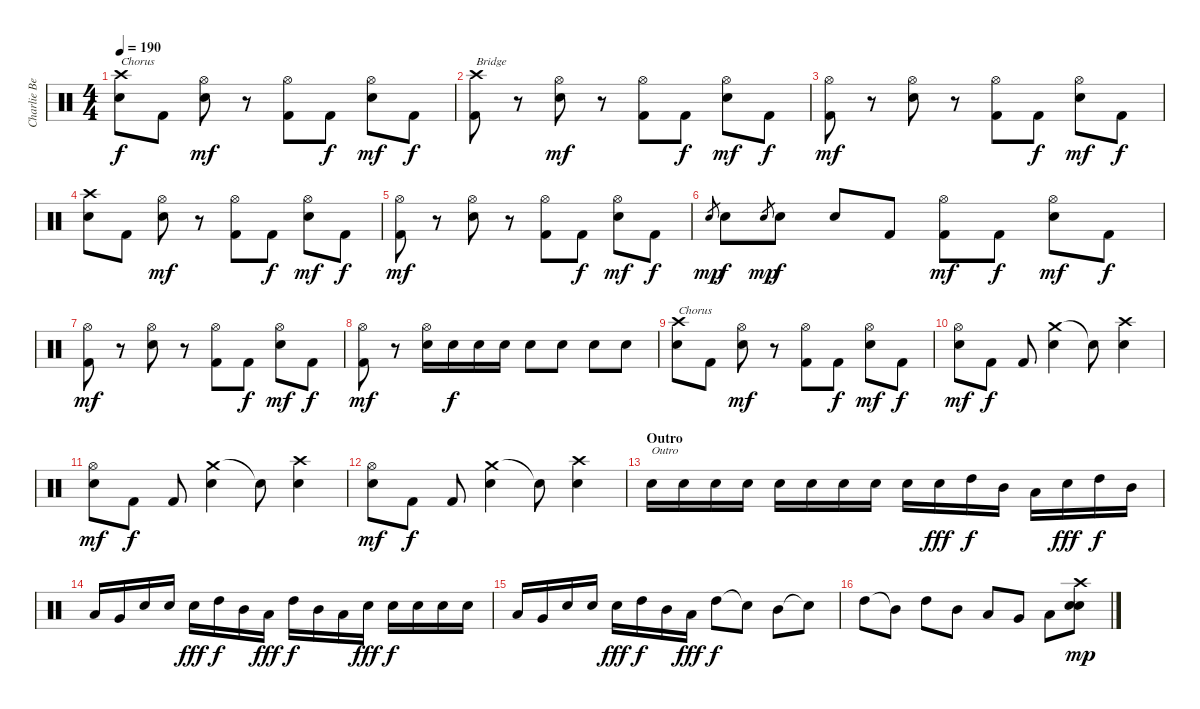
\track ("Charlie Benante" "Charlie Be") {instrument percussion}
\staff {score}
\articulation defaults
\ts (4 4)
\tempo 190
\clef neutral
\ks c
("Crash high (hit)" "Electric Snare (hit)").8{txt "Chorus" dy f} "Kick (hit) 2".8 ("Hi-Hat (open)" "Electric Snare (hit)").8{dy mf} r.8 ("Hi-Hat (open)" "Kick (hit) 2").8 "Kick (hit) 2".8{dy f} ("Hi-Hat (open)" "Electric Snare (hit)").8{dy mf} "Kick (hit) 2".8{dy f} |
("Crash high (hit)" "Kick (hit) 2").8{txt "Bridge"} r.8 ("Hi-Hat (open)" "Electric Snare (hit)").8{dy mf} r.8 ("Hi-Hat (open)" "Kick (hit) 2").8 "Kick (hit) 2".8{dy f} ("Hi-Hat (open)" "Electric Snare (hit)").8{dy mf} "Kick (hit) 2".8{dy f} |
("Hi-Hat (open)" "Kick (hit) 2").8{dy mf} r.8 ("Hi-Hat (open)" "Electric Snare (hit)").8 r.8 ("Hi-Hat (open)" "Kick (hit) 2").8 "Kick (hit) 2".8{dy f} ("Hi-Hat (open)" "Electric Snare (hit)").8{dy mf} "Kick (hit) 2".8{dy f} |
("Crash high (hit)" "Electric Snare (hit)").8 "Kick (hit) 2".8 ("Hi-Hat (open)" "Electric Snare (hit)").8{dy mf} r.8 ("Hi-Hat (open)" "Kick (hit) 2").8 "Kick (hit) 2".8{dy f} ("Hi-Hat (open)" "Electric Snare (hit)").8{dy mf} "Kick (hit) 2".8{dy f} |
("Hi-Hat (open)" "Kick (hit) 2").8{dy mf} r.8 ("Hi-Hat (open)" "Electric Snare (hit)").8 r.8 ("Hi-Hat (open)" "Kick (hit) 2").8 "Kick (hit) 2".8{dy f} ("Hi-Hat (open)" "Electric Snare (hit)").8{dy mf} "Kick (hit) 2".8{dy f} |
"Snare (hit) 2".8{gr dy mp} "Electric Snare (hit)".8{dy f} "Snare (hit) 2".8{gr dy mp} "Electric Snare (hit)".8{dy f} "Electric Snare (hit)".8 "Kick (hit) 2".8 ("Hi-Hat (open)" "Kick (hit) 2").8{dy mf} "Kick (hit) 2".8{dy f} ("Hi-Hat (open)" "Electric Snare (hit)").8{dy mf} "Kick (hit) 2".8{dy f} |
("Hi-Hat (open)" "Kick (hit) 2").8{dy mf} r.8 ("Hi-Hat (open)" "Electric Snare (hit)").8 r.8 ("Hi-Hat (open)" "Kick (hit) 2").8 "Kick (hit) 2".8{dy f} ("Hi-Hat (open)" "Electric Snare (hit)").8{dy mf} "Kick (hit) 2".8{dy f} |
("Hi-Hat (open)" "Kick (hit) 2").8{dy mf} r.8 ("Hi-Hat (open)" "Electric Snare (hit)").16 "Electric Snare (hit)".16{dy f} "Electric Snare (hit)".16 "Electric Snare (hit)".16 "Electric Snare (hit)".8 "Electric Snare (hit)".8 "Electric Snare (hit)".8 "Electric Snare (hit)".8 |
("Crash high (hit)" "Electric Snare (hit)").8{txt "Chorus"} "Kick (hit) 2".8 ("Hi-Hat (open)" "Electric Snare (hit)").8{dy mf} r.8 ("Hi-Hat (open)" "Kick (hit) 2").8 "Kick (hit) 2".8{dy f} ("Hi-Hat (open)" "Electric Snare (hit)").8{dy mf} "Kick (hit) 2".8{dy f} |
("Hi-Hat (open)" "Electric Snare (hit)").8{dy mf} "Kick (hit) 2".8{dy f} "Kick (hit) 2".8 ("Crash medium (hit)" "Electric Snare (hit)").4 "Snare (hit)"{t}.8 ("Crash high (hit)" "Electric Snare (hit)").4 |
("Hi-Hat (open)" "Electric Snare (hit)").8{dy mf} "Kick (hit) 2".8{dy f} "Kick (hit) 2".8 ("Crash medium (hit)" "Electric Snare (hit)").4 "Snare (hit)"{t}.8 ("Crash high (hit)" "Electric Snare (hit)").4 |
("Hi-Hat (open)" "Electric Snare (hit)").8{dy mf} "Kick (hit) 2".8{dy f} "Kick (hit) 2".8 ("Crash medium (hit)" "Electric Snare (hit)").4 "Snare (hit)"{t}.8 ("Crash high (hit)" "Electric Snare (hit)").4 |
\section ("" "Outro")
"Electric Snare (hit)".16{txt "Outro"} "Electric Snare (hit)".16 "Electric Snare (hit)".16 "Electric Snare (hit)".16 "Electric Snare (hit)".16 "Electric Snare (hit)".16 "Electric Snare (hit)".16 "Electric Snare (hit)".16 "Electric Snare (hit)".16 "Snare (hit) 2".16{dy fff} "High Tom (hit)".16{dy f} "Mid Tom (hit)".16 "Low Tom (hit)".16 "Snare (hit) 2".16{dy fff} "High Tom (hit)".16{dy f} "Mid Tom (hit)".16 |
"Low Tom (hit)".16 "Very Low Tom (hit)".16 "Electric Snare (hit)".16 "Electric Snare (hit)".16 "Snare (hit) 2".16{dy fff} "High Tom (hit)".16{dy f} "Mid Tom (hit)".16 "Low Tom (hit)".16{dy fff} "High Tom (hit)".16{dy f} "Mid Tom (hit)".16 "Low Tom (hit)".16 "Snare (hit) 2".16{dy fff} "Electric Snare (hit)".16{dy f} "Electric Snare (hit)".16 "Electric Snare (hit)".16 "Electric Snare (hit)".16 |
"Low Tom (hit)".16 "Very Low Tom (hit)".16 "Electric Snare (hit)".16 "Electric Snare (hit)".16 "Snare (hit) 2".16{dy fff} "High Tom (hit)".16{dy f} "Mid Tom (hit)".16 "Low Tom (hit)".16{dy fff} "High Tom (hit)".8{dy f} "Snare (hit)"{t}.8 "Mid Tom (hit)".8 "Snare (hit)"{t}.8 |
"High Tom (hit)".8 "Mid Tom (hit)"{t}.8 "High Tom (hit)".8 "Mid Tom (hit)".8 "Low Tom (hit)".8 "Very Low Tom (hit)".8 "Low Floor Tom (hit)".8 ("Crash high (hit)" "Snare (hit) 2" "Electric Snare (hit)").8{dy mp}
